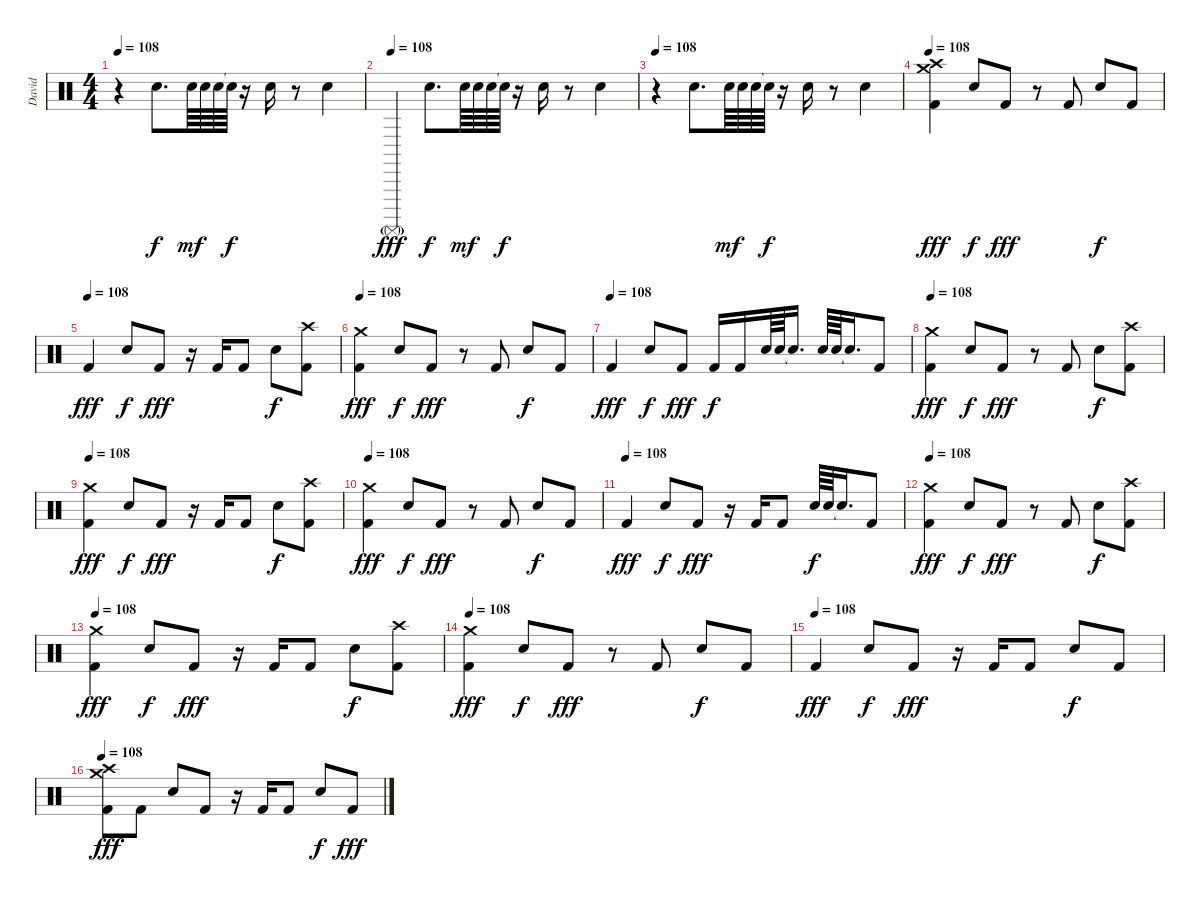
\track ("David" "David") {instrument percussion}
\staff {score}
\articulation defaults
\ts (4 4)
\tempo 108
\clef neutral
\ks c
r.4{dy f} "Snare (hit) 2".8{d} "Snare (hit) 2".64{dy mf} "Snare (hit) 2".64 "Snare (hit) 2".64 "Snare (hit) 2"{t}.64{dy f} r.16 "Snare (hit) 2".16 r.8 "Snare (hit) 2".4 |
\tempo (108)
"Surdo (mute)"{g}.4{dy fff} "Snare (hit) 2".8{d dy f} "Snare (hit) 2".64{dy mf} "Snare (hit) 2".64 "Snare (hit) 2".64 "Snare (hit) 2"{t}.64{dy f} r.16 "Snare (hit) 2".16 r.8 "Snare (hit) 2".4 |
\tempo 108
r.4 "Snare (hit) 2".8{d} "Snare (hit) 2".64{dy mf} "Snare (hit) 2".64 "Snare (hit) 2".64 "Snare (hit) 2"{t}.64{dy f} r.16 "Snare (hit) 2".16 r.8 "Snare (hit) 2".4 |
\tempo 108
("Crash medium (hit)" "Crash high (hit)" "Kick (hit) 2").4{dy fff volume 16} "Snare (hit) 2".8{dy f} "Kick (hit) 2".8{dy fff} r.8 "Kick (hit) 2".8 "Snare (hit) 2".8{dy f} "Kick (hit) 2".8 |
\tempo (108)
"Kick (hit) 2".4{dy fff} "Snare (hit) 2".8{dy f} "Kick (hit) 2".8{dy fff} r.16 "Kick (hit) 2".16 "Kick (hit) 2".8 "Snare (hit) 2".8{dy f} ("Crash high (hit)" "Kick (hit) 2").8 |
\tempo 108
("Crash medium (hit)" "Kick (hit) 2").4{dy fff volume 16} "Snare (hit) 2".8{dy f} "Kick (hit) 2".8{dy fff} r.8 "Kick (hit) 2".8 "Snare (hit) 2".8{dy f} "Kick (hit) 2".8 |
\tempo (108)
"Kick (hit) 2".4{dy fff} "Snare (hit) 2".8{dy f} "Kick (hit) 2".8{dy fff} "Kick (hit) 2".16{dy f} "Kick (hit) 2".16 "Snare (hit) 2".64 "Snare (hit) 2".64 "Snare (hit)"{t}.16{d} "Snare (hit) 2".64 "Snare (hit) 2".64 "Snare (hit)"{t}.16{d} "Kick (hit) 2".8 |
\tempo 108
("Crash medium (hit)" "Kick (hit) 2").4{dy fff volume 16} "Snare (hit) 2".8{dy f} "Kick (hit) 2".8{dy fff} r.8 "Kick (hit) 2".8 "Snare (hit) 2".8{dy f} ("Crash high (hit)" "Kick (hit) 2").8 |
\tempo 108
("Crash medium (hit)" "Kick (hit) 2").4{dy fff} "Snare (hit) 2".8{dy f} "Kick (hit) 2".8{dy fff} r.16 "Kick (hit) 2".16 "Kick (hit) 2".8 "Snare (hit) 2".8{dy f} ("Crash high (hit)" "Kick (hit) 2").8 |
\tempo 108
("Crash medium (hit)" "Kick (hit) 2").4{dy fff volume 16} "Snare (hit) 2".8{dy f} "Kick (hit) 2".8{dy fff} r.8 "Kick (hit) 2".8 "Snare (hit) 2".8{dy f} "Kick (hit) 2".8 |
\tempo (108)
"Kick (hit) 2".4{dy fff} "Snare (hit) 2".8{dy f} "Kick (hit) 2".8{dy fff} r.16 "Kick (hit) 2".16 "Kick (hit) 2".8 "Snare (hit) 2".64{dy f} "Snare (hit) 2".64 "Snare (hit)"{t}.16{d} "Kick (hit) 2".8 |
\tempo 108
("Crash medium (hit)" "Kick (hit) 2").4{dy fff volume 16} "Snare (hit) 2".8{dy f} "Kick (hit) 2".8{dy fff} r.8 "Kick (hit) 2".8 "Snare (hit) 2".8{dy f} ("Crash high (hit)" "Kick (hit) 2").8 |
\tempo 108
("Crash medium (hit)" "Kick (hit) 2").4{dy fff} "Snare (hit) 2".8{dy f} "Kick (hit) 2".8{dy fff} r.16 "Kick (hit) 2".16 "Kick (hit) 2".8 "Snare (hit) 2".8{dy f} ("Crash high (hit)" "Kick (hit) 2").8 |
\tempo 108
("Crash medium (hit)" "Kick (hit) 2").4{dy fff volume 16} "Snare (hit) 2".8{dy f} "Kick (hit) 2".8{dy fff} r.8 "Kick (hit) 2".8 "Snare (hit) 2".8{dy f} "Kick (hit) 2".8 |
\tempo (108)
"Kick (hit) 2".4{dy fff} "Snare (hit) 2".8{dy f} "Kick (hit) 2".8{dy fff} r.16 "Kick (hit) 2".16 "Kick (hit) 2".8 "Snare (hit) 2".8{dy f} "Kick (hit) 2".8 |
\tempo 108
("Crash high (hit)" "Crash medium (hit)" "Kick (hit) 2").8{dy fff} "Kick (hit) 2".8 "Snare (hit) 2".8 "Kick (hit) 2".8 r.16 "Kick (hit) 2".16 "Kick (hit) 2".8 "Snare (hit) 2".8{dy f} "Kick (hit) 2".8{dy fff}
